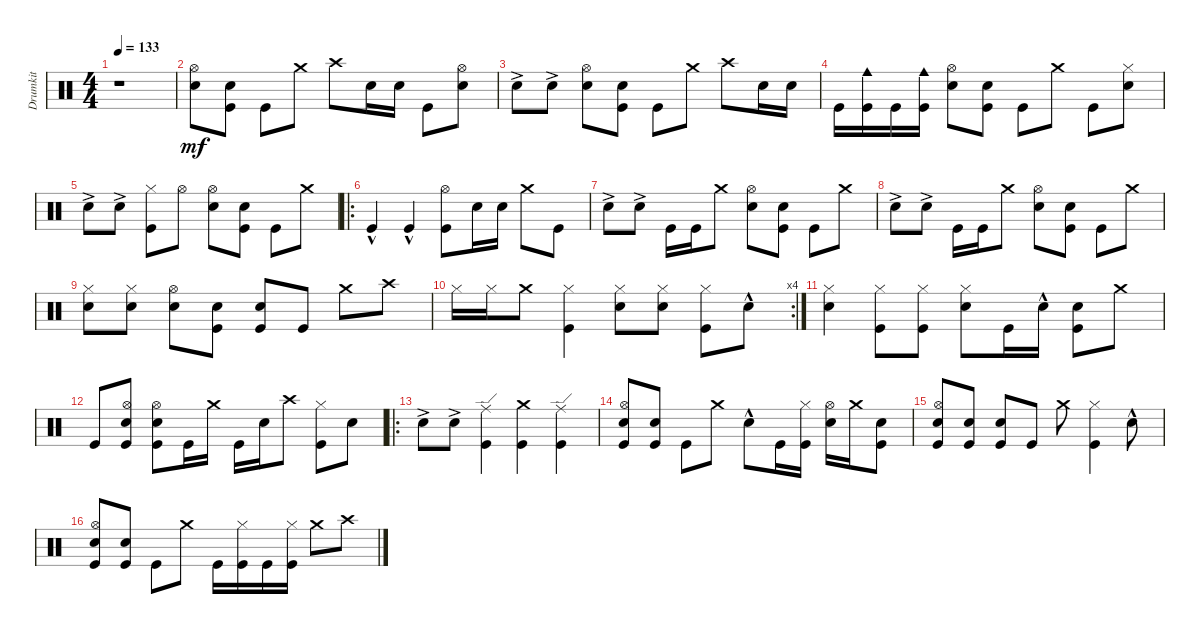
\track ("Drumkit" "Drumkit") {instrument percussion}
\staff {score}
\articulation defaults
\ts (4 4)
\tempo 133
\clef neutral
\ks c
r.1{dy mf} |
("Snare (hit) 2" "Hi-Hat (open)").8 ("Snare (hit) 2" "Kick (hit)").8 "Kick (hit)".8 "Crash medium (hit)".8 "Crash high (hit)".8 "Snare (hit) 2".16 "Snare (hit) 2".16 "Kick (hit)".8 ("Snare (hit) 2" "Hi-Hat (open)").8 |
"Snare (hit) 2"{ac}.8 "Snare (hit) 2"{ac}.8 ("Snare (hit) 2" "Hi-Hat (open)").8 ("Snare (hit) 2" "Kick (hit)").8 "Kick (hit)".8 "Crash medium (hit)".8 "Crash high (hit)".8 "Snare (hit) 2".16 "Snare (hit) 2".16 |
"Kick (hit)".16 ("Kick (hit)" "Cowbell medium (hit)").16 "Kick (hit)".16 ("Kick (hit)" "Cowbell medium (hit)").16 ("Snare (hit) 2" "Hi-Hat (open)").8 ("Snare (hit) 2" "Kick (hit)").8 "Kick (hit)".8 "Crash medium (hit)".8 "Kick (hit)".8 ("Snare (hit) 2" "Hi-Hat (closed)").8 |
"Snare (hit) 2"{ac}.8 "Snare (hit) 2"{ac}.8 ("Kick (hit)" "Hi-Hat (closed)").8 "Hi-Hat (open)".8 ("Snare (hit) 2" "Hi-Hat (open)").8 ("Snare (hit) 2" "Kick (hit)").8 "Kick (hit)".8 "Crash medium (hit)".8 |
\ro "Kick (hit)"{hac}.4 "Kick (hit)"{hac}.4
("Kick (hit)" "Hi-Hat (open)").8 "Snare (hit) 2".16 "Snare (hit) 2".16 "Crash medium (hit)".8 "Kick (hit)".8 |
"Snare (hit) 2"{ac}.8 "Snare (hit) 2"{ac}.8 "Kick (hit)".16 "Kick (hit)".16 "Crash medium (hit)".8 ("Snare (hit) 2" "Hi-Hat (open)").8 ("Snare (hit) 2" "Kick (hit)").8 "Kick (hit)".8 "Crash medium (hit)".8 |
"Snare (hit) 2"{ac}.8 "Snare (hit) 2"{ac}.8 "Kick (hit)".16 "Kick (hit)".16 "Crash medium (hit)".8 ("Snare (hit) 2" "Hi-Hat (open)").8 ("Snare (hit) 2" "Kick (hit)").8 "Kick (hit)".8 "Crash medium (hit)".8 |
("Snare (hit) 2" "Hi-Hat (closed)").8 ("Snare (hit) 2" "Hi-Hat (closed)").8 ("Snare (hit) 2" "Hi-Hat (open)").8 ("Snare (hit) 2" "Kick (hit)").8 ("Snare (hit) 2" "Kick (hit)").8 "Kick (hit)".8 "Crash medium (hit)".8 "Crash high (hit)".8 |
\rc 4 "Hi-Hat (closed)".16 "Hi-Hat (closed)".16 "Crash medium (hit)".8
("Kick (hit)" "Hi-Hat (closed)").4 ("Snare (hit) 2" "Hi-Hat (closed)").8 ("Snare (hit) 2" "Hi-Hat (closed)").8 ("Hi-Hat (closed)" "Kick (hit)").8 "Snare (hit) 2"{hac}.8 |
("Snare (hit) 2" "Hi-Hat (closed)").4 ("Kick (hit)" "Hi-Hat (closed)").8 ("Kick (hit)" "Hi-Hat (closed)").8 ("Snare (hit) 2" "Hi-Hat (closed)").8 "Kick (hit)".16 "Snare (hit) 2"{hac}.16 ("Snare (hit) 2" "Kick (hit)").8 "Crash medium (hit)".8 |
"Kick (hit)".8 ("Snare (hit) 2" "Kick (hit)" "Hi-Hat (open)").8 ("Kick (hit)" "Hi-Hat (open)" "Snare (hit) 2").8 "Kick (hit)".16 "Crash medium (hit)".16 "Kick (hit)".16 "Snare (hit) 2".16 "Crash high (hit)".8 ("Kick (hit)" "Hi-Hat (closed)").8 "Snare (hit) 2".8 |
\ro "Snare (hit) 2"{ac}.8 "Snare (hit) 2"{ac}.8
("Kick (hit)" "Ride (edge)").4 ("Kick (hit)" "Crash medium (hit)").4 ("Kick (hit)" "Ride (edge)").4 |
("Kick (hit)" "Snare (hit) 2" "Hi-Hat (open)").8 ("Kick (hit)" "Snare (hit) 2").8 "Kick (hit)".8 "Crash medium (hit)".8 "Snare (hit) 2"{hac}.8 "Kick (hit)".16 ("Kick (hit)" "Hi-Hat (closed)").16 ("Snare (hit) 2" "Hi-Hat (open)").16 "Crash medium (hit)".16 ("Snare (hit) 2" "Kick (hit)").8 |
("Snare (hit) 2" "Kick (hit)" "Hi-Hat (open)").8 ("Kick (hit)" "Snare (hit) 2").8 ("Kick (hit)" "Snare (hit) 2").8 "Kick (hit)".8 "Crash medium (hit)".8 ("Kick (hit)" "Hi-Hat (closed)").4 "Snare (hit) 2"{hac}.8 |
("Snare (hit) 2" "Kick (hit)" "Hi-Hat (open)").8 ("Kick (hit)" "Snare (hit) 2").8 "Kick (hit)".8 "Crash medium (hit)".8 "Kick (hit)".16 ("Kick (hit)" "Hi-Hat (closed)").16 "Kick (hit)".16 ("Kick (hit)" "Hi-Hat (closed)").16 "Crash medium (hit)".8 "Crash high (hit)".8
